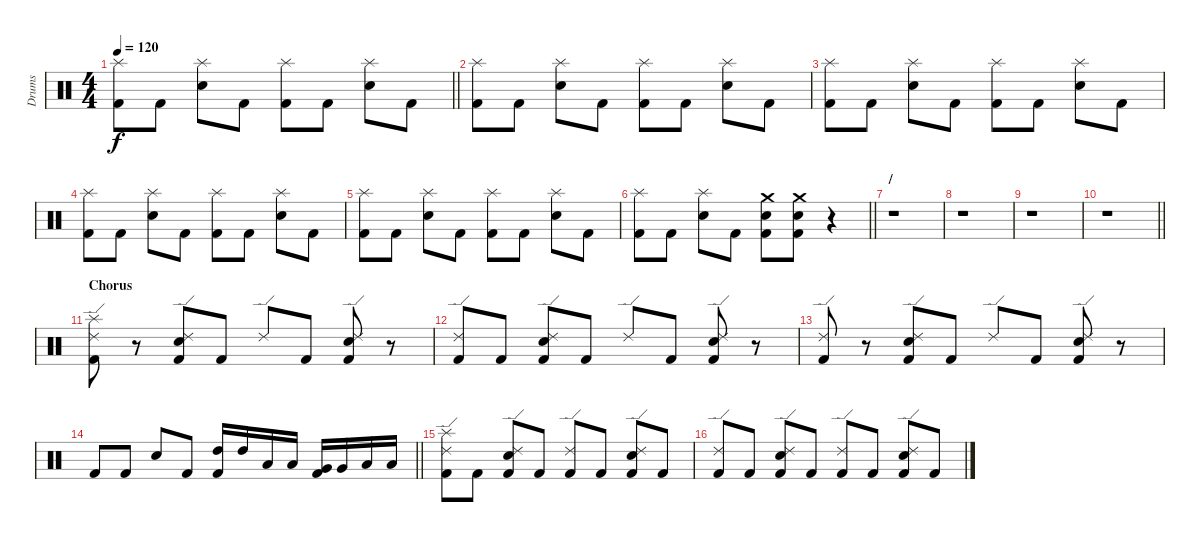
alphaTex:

\track ("Drums" "Drums") {instrument percussion}
\staff {score}
\articulation defaults
\ts (4 4)
\tempo 120
\clef neutral
\barLineRight lightlight
\ks c
("Splash (hit)" "Kick (hit) 2").8{dy f} "Kick (hit) 2".8 ("Snare (hit) 2" "Splash (hit)").8 "Kick (hit) 2".8 ("Splash (hit)" "Kick (hit) 2").8 "Kick (hit) 2".8 ("Snare (hit) 2" "Splash (hit)").8 "Kick (hit) 2".8 |
("Splash (hit)" "Kick (hit) 2").8 "Kick (hit) 2".8 ("Snare (hit) 2" "Splash (hit)").8 "Kick (hit) 2".8 ("Splash (hit)" "Kick (hit) 2").8 "Kick (hit) 2".8 ("Snare (hit) 2" "Splash (hit)").8 "Kick (hit) 2".8 |
("Kick (hit) 2" "Splash (hit)").8 "Kick (hit) 2".8 ("Splash (hit)" "Snare (hit) 2").8 "Kick (hit) 2".8 ("Kick (hit) 2" "Splash (hit)").8 "Kick (hit) 2".8 ("Splash (hit)" "Snare (hit) 2").8 "Kick (hit) 2".8 |
("Kick (hit) 2" "Splash (hit)").8 "Kick (hit) 2".8 ("Snare (hit) 2" "Splash (hit)").8 "Kick (hit) 2".8 ("Kick (hit) 2" "Splash (hit)").8 "Kick (hit) 2".8 ("Snare (hit) 2" "Splash (hit)").8 "Kick (hit) 2".8 |
("Kick (hit) 2" "Splash (hit)").8 "Kick (hit) 2".8 ("Snare (hit) 2" "Splash (hit)").8 "Kick (hit) 2".8 ("Kick (hit) 2" "Splash (hit)").8 "Kick (hit) 2".8 ("Snare (hit) 2" "Splash (hit)").8 "Kick (hit) 2".8 |
\barLineRight lightlight
("Kick (hit) 2" "Splash (hit)").8 "Kick (hit) 2".8 ("Snare (hit) 2" "Splash (hit)").8 "Kick (hit) 2".8 ("Snare (hit) 2" "Kick (hit) 2" "Crash medium (hit)").8 ("Snare (hit) 2" "Kick (hit) 2" "Crash medium (hit)").8 r.4 |
\section ("" "/")
r.1 |
r.1 |
r.1 |
\barLineRight lightlight
r.1 |
\section ("" "Chorus")
("Kick (hit) 2" "Ride (edge) 2" "Splash (hit)").8 r.8 ("Ride (edge) 2" "Kick (hit) 2" "Snare (hit) 2").8 "Kick (hit) 2".8 "Ride (edge) 2".8 "Kick (hit) 2".8 ("Ride (edge) 2" "Kick (hit) 2" "Snare (hit) 2").8 r.8 |
("Kick (hit) 2" "Ride (edge) 2").8 "Kick (hit) 2".8 ("Snare (hit) 2" "Kick (hit) 2" "Ride (edge) 2").8 "Kick (hit) 2".8 "Ride (edge) 2".8 "Kick (hit) 2".8 ("Snare (hit) 2" "Kick (hit) 2" "Ride (edge) 2").8 r.8 |
("Kick (hit) 2" "Ride (edge) 2").8 r.8 ("Snare (hit) 2" "Kick (hit) 2" "Ride (edge) 2").8 "Kick (hit) 2".8 "Ride (edge) 2".8 "Kick (hit) 2".8 ("Snare (hit) 2" "Kick (hit) 2" "Ride (edge) 2").8 r.8 |
\barLineRight lightlight "Kick (hit) 2".8 "Kick (hit) 2".8 "Snare (hit) 2".8 "Kick (hit) 2".8
("High Tom (hit)" "Kick (hit) 2").16 "High Tom (hit)".16 "Low Tom (hit)".16 "Low Tom (hit)".16 ("Very Low Tom (hit)" "Kick (hit) 2").16 "Very Low Tom (hit)".16 "Low Floor Tom (hit)".16 "Low Floor Tom (hit)".16 |
("Ride (edge) 2" "Splash (hit)" "Kick (hit) 2").8 "Kick (hit) 2".8 ("Ride (edge) 2" "Snare (hit) 2" "Kick (hit) 2").8 "Kick (hit) 2".8 ("Ride (edge) 2" "Kick (hit) 2").8 "Kick (hit) 2".8 ("Ride (edge) 2" "Snare (hit) 2" "Kick (hit) 2").8 "Kick (hit) 2".8 |
("Ride (edge) 2" "Kick (hit) 2").8 "Kick (hit) 2".8 ("Snare (hit) 2" "Ride (edge) 2" "Kick (hit) 2").8 "Kick (hit) 2".8 ("Ride (edge) 2" "Kick (hit) 2").8 "Kick (hit) 2".8 ("Snare (hit) 2" "Ride (edge) 2" "Kick (hit) 2").8 "Kick (hit) 2".8
